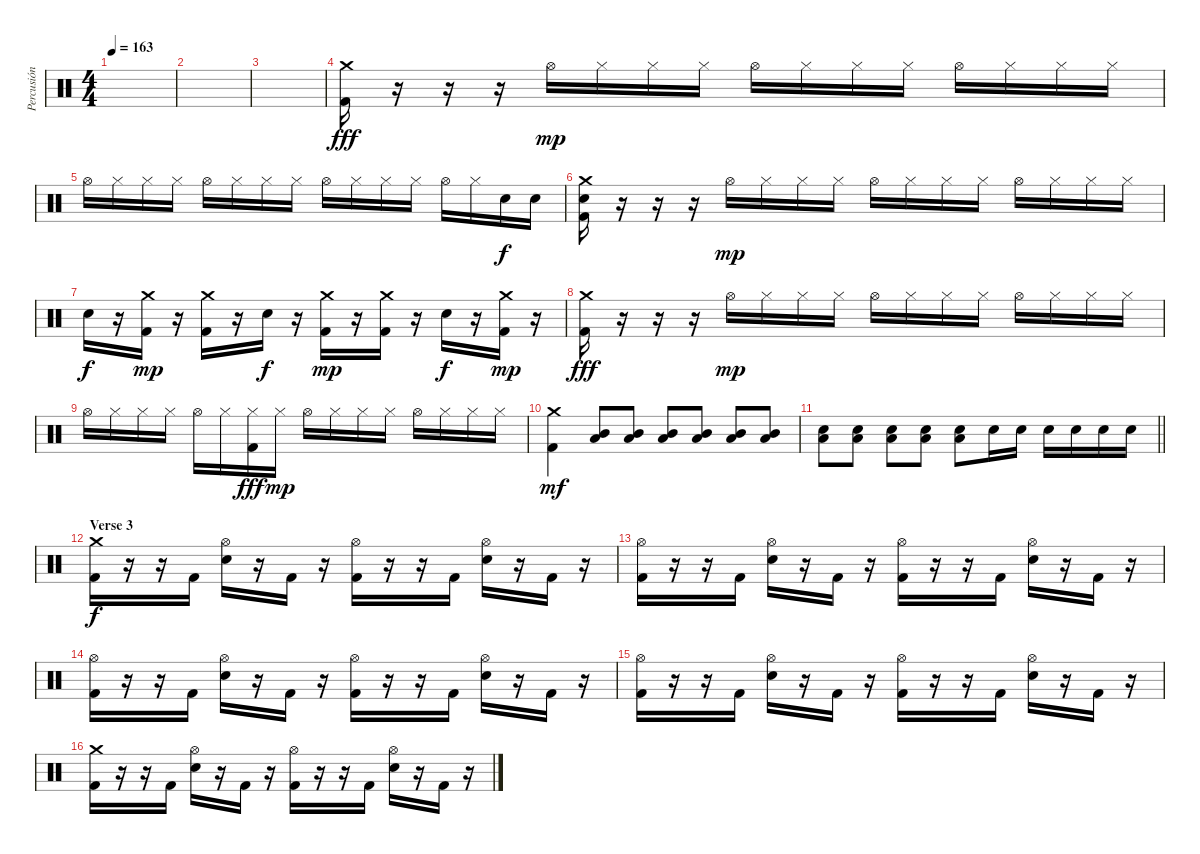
\track ("Percusión" "Percusión") {instrument percussion}
\staff {score}
\articulation defaults
\ts (4 4)
\tempo 163
\clef neutral
\ks c
|
|
|
("Crash medium (hit)" "Kick (hit) 2").16{dy fff} r.16 r.16 r.16 "Hi-Hat (open)".16{dy mp} "Hi-Hat (closed)".16 "Hi-Hat (closed)".16 "Hi-Hat (closed)".16 "Hi-Hat (open)".16 "Hi-Hat (closed)".16 "Hi-Hat (closed)".16 "Hi-Hat (closed)".16 "Hi-Hat (open)".16 "Hi-Hat (closed)".16 "Hi-Hat (closed)".16 "Hi-Hat (closed)".16 |
"Hi-Hat (open)".16 "Hi-Hat (closed)".16 "Hi-Hat (closed)".16 "Hi-Hat (closed)".16 "Hi-Hat (open)".16 "Hi-Hat (closed)".16 "Hi-Hat (closed)".16 "Hi-Hat (closed)".16 "Hi-Hat (open)".16 "Hi-Hat (closed)".16 "Hi-Hat (closed)".16 "Hi-Hat (closed)".16 "Hi-Hat (open)".16 "Hi-Hat (closed)".16 "Snare (hit) 2".16{dy f} "Snare (hit) 2".16 |
("Crash medium (hit)" "Snare (hit) 2" "Kick (hit) 2").16 r.16 r.16 r.16 "Hi-Hat (open)".16{dy mp} "Hi-Hat (closed)".16 "Hi-Hat (closed)".16 "Hi-Hat (closed)".16 "Hi-Hat (open)".16 "Hi-Hat (closed)".16 "Hi-Hat (closed)".16 "Hi-Hat (closed)".16 "Hi-Hat (open)".16 "Hi-Hat (closed)".16 "Hi-Hat (closed)".16 "Hi-Hat (closed)".16 |
"Snare (hit) 2".16{dy f} r.16 ("Crash medium (hit)" "Kick (hit) 2").16{dy mp} r.16 ("Crash medium (hit)" "Kick (hit) 2").16 r.16 "Snare (hit) 2".16{dy f} r.16 ("Crash medium (hit)" "Kick (hit) 2").16{dy mp} r.16 ("Crash medium (hit)" "Kick (hit) 2").16 r.16 "Snare (hit) 2".16{dy f} r.16 ("Crash medium (hit)" "Kick (hit) 2").16{dy mp} r.16 |
("Crash medium (hit)" "Kick (hit) 2").16{dy fff} r.16 r.16 r.16 "Hi-Hat (open)".16{dy mp} "Hi-Hat (closed)".16 "Hi-Hat (closed)".16 "Hi-Hat (closed)".16 "Hi-Hat (open)".16 "Hi-Hat (closed)".16 "Hi-Hat (closed)".16 "Hi-Hat (closed)".16 "Hi-Hat (open)".16 "Hi-Hat (closed)".16 "Hi-Hat (closed)".16 "Hi-Hat (closed)".16 |
"Hi-Hat (open)".16 "Hi-Hat (closed)".16 "Hi-Hat (closed)".16 "Hi-Hat (closed)".16 "Hi-Hat (open)".16 "Hi-Hat (closed)".16 ("Hi-Hat (closed)" "Kick (hit) 2").16{dy fff} "Hi-Hat (closed)".16{dy mp} "Hi-Hat (open)".16 "Hi-Hat (closed)".16 "Hi-Hat (closed)".16 "Hi-Hat (closed)".16 "Hi-Hat (open)".16 "Hi-Hat (closed)".16 "Hi-Hat (closed)".16 "Hi-Hat (closed)".16 |
("Crash medium (hit)" "Kick (hit) 2").4{dy mf} ("Low Tom (hit)" "Mid Tom (hit)").8 ("Low Tom (hit)" "Mid Tom (hit)").8 ("Low Tom (hit)" "Mid Tom (hit)").8 ("Low Tom (hit)" "Mid Tom (hit)").8 ("Low Tom (hit)" "Mid Tom (hit)").8 ("Low Tom (hit)" "Mid Tom (hit)").8 |
\barLineRight lightlight
("Snare (hit) 2" "Low Floor Tom (hit)").8 ("Snare (hit) 2" "Low Floor Tom (hit)").8 ("Snare (hit) 2" "Low Floor Tom (hit)").8 ("Snare (hit) 2" "Low Floor Tom (hit)").8 ("Snare (hit) 2" "Low Floor Tom (hit)").8 "Snare (hit) 2".16 "Snare (hit) 2".16 "Snare (hit) 2".16 "Snare (hit) 2".16 "Snare (hit) 2".16 "Snare (hit) 2".16 |
\section ("" "Verse 3")
("Crash medium (hit)" "Kick (hit) 2").16{dy f} r.16 r.16 "Kick (hit) 2".16 ("Hi-Hat (open)" "Snare (hit) 2").16 r.16 "Kick (hit) 2".16 r.16 ("Hi-Hat (open)" "Kick (hit) 2").16 r.16 r.16 "Kick (hit) 2".16 ("Hi-Hat (open)" "Snare (hit) 2").16 r.16 "Kick (hit) 2".16 r.16 |
("Hi-Hat (open)" "Kick (hit) 2").16 r.16 r.16 "Kick (hit) 2".16 ("Hi-Hat (open)" "Snare (hit) 2").16 r.16 "Kick (hit) 2".16 r.16 ("Hi-Hat (open)" "Kick (hit) 2").16 r.16 r.16 "Kick (hit) 2".16 ("Hi-Hat (open)" "Snare (hit) 2").16 r.16 "Kick (hit) 2".16 r.16 |
("Hi-Hat (open)" "Kick (hit) 2").16 r.16 r.16 "Kick (hit) 2".16 ("Hi-Hat (open)" "Snare (hit) 2").16 r.16 "Kick (hit) 2".16 r.16 ("Hi-Hat (open)" "Kick (hit) 2").16 r.16 r.16 "Kick (hit) 2".16 ("Hi-Hat (open)" "Snare (hit) 2").16 r.16 "Kick (hit) 2".16 r.16 |
("Hi-Hat (open)" "Kick (hit) 2").16 r.16 r.16 "Kick (hit) 2".16 ("Hi-Hat (open)" "Snare (hit) 2").16 r.16 "Kick (hit) 2".16 r.16 ("Hi-Hat (open)" "Kick (hit) 2").16 r.16 r.16 "Kick (hit) 2".16 ("Hi-Hat (open)" "Snare (hit) 2").16 r.16 "Kick (hit) 2".16 r.16 |
("Crash medium (hit)" "Kick (hit) 2").16 r.16 r.16 "Kick (hit) 2".16 ("Hi-Hat (open)" "Snare (hit) 2").16 r.16 "Kick (hit) 2".16 r.16 ("Hi-Hat (open)" "Kick (hit) 2").16 r.16 r.16 "Kick (hit) 2".16 ("Hi-Hat (open)" "Snare (hit) 2").16 r.16 "Kick (hit) 2".16 r.16
